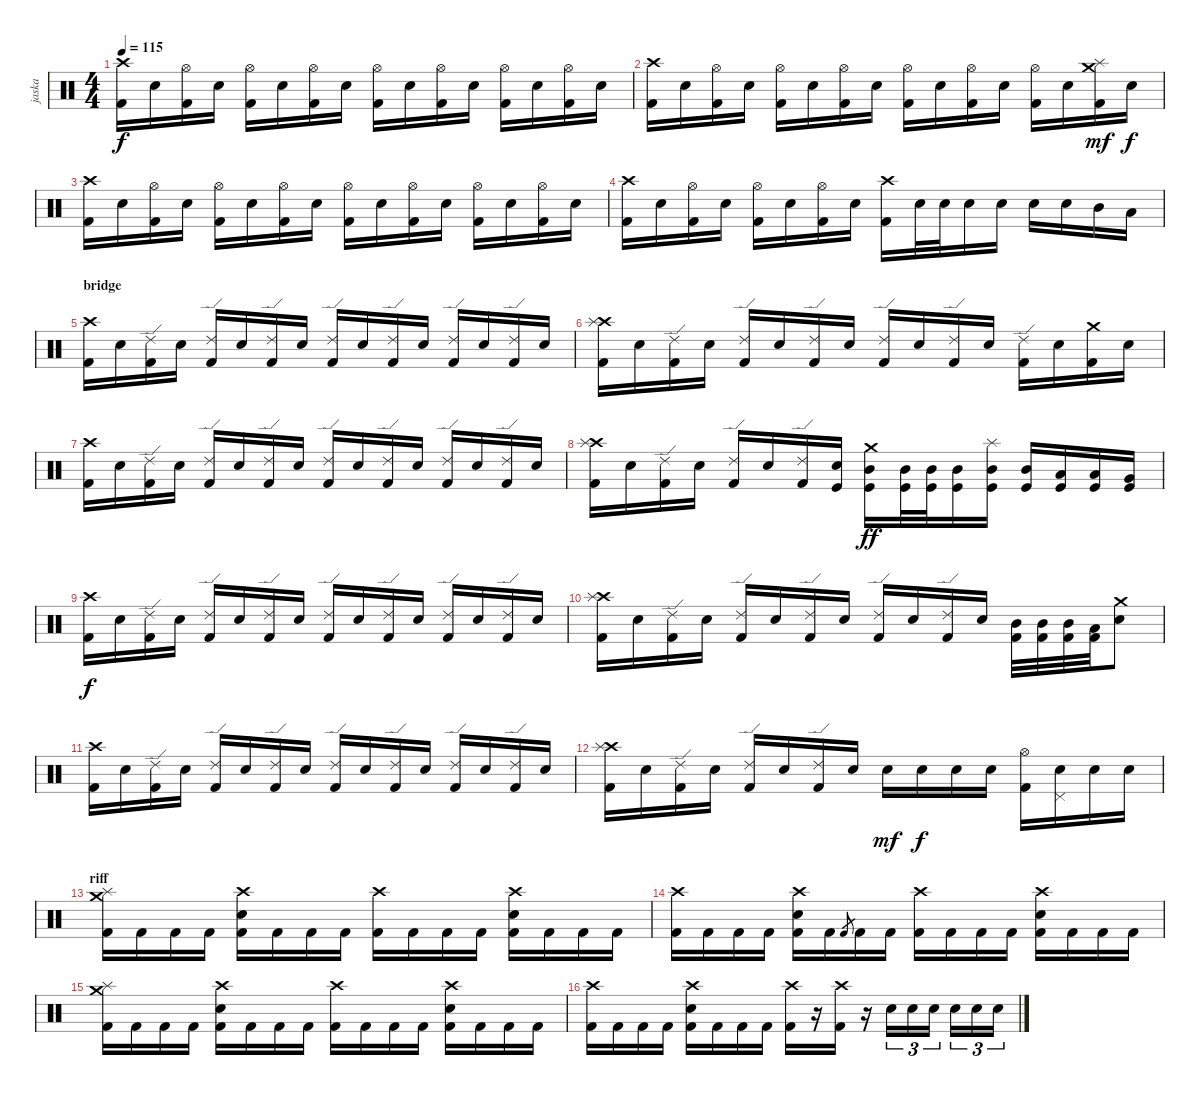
\track ("jaska" "jaska") {instrument percussion}
\staff {score}
\articulation defaults
\ts (4 4)
\tempo 115
\clef neutral
\ks c
("Crash high (hit)" "Kick (hit) 2").16{dy f} "Electric Snare (hit)".16 ("Hi-Hat (open)" "Kick (hit) 2").16 "Electric Snare (hit)".16 ("Hi-Hat (open)" "Kick (hit) 2").16 "Electric Snare (hit)".16 ("Hi-Hat (open)" "Kick (hit) 2").16 "Electric Snare (hit)".16 ("Hi-Hat (open)" "Kick (hit) 2").16 "Electric Snare (hit)".16 ("Hi-Hat (open)" "Kick (hit) 2").16 "Electric Snare (hit)".16 ("Hi-Hat (open)" "Kick (hit) 2").16 "Electric Snare (hit)".16 ("Hi-Hat (open)" "Kick (hit) 2").16 "Electric Snare (hit)".16 |
("Crash high (hit)" "Kick (hit) 2").16 "Electric Snare (hit)".16 ("Hi-Hat (open)" "Kick (hit) 2").16 "Electric Snare (hit)".16 ("Hi-Hat (open)" "Kick (hit) 2").16 "Electric Snare (hit)".16 ("Hi-Hat (open)" "Kick (hit) 2").16 "Electric Snare (hit)".16 ("Hi-Hat (open)" "Kick (hit) 2").16 "Electric Snare (hit)".16 ("Hi-Hat (open)" "Kick (hit) 2").16 "Electric Snare (hit)".16 ("Hi-Hat (open)" "Kick (hit) 2").16 "Electric Snare (hit)".16 ("Crash medium (hit)" "Splash (hit)" "Kick (hit) 2").16{dy mf} "Electric Snare (hit)".16{dy f} |
("Crash high (hit)" "Kick (hit) 2").16 "Electric Snare (hit)".16 ("Hi-Hat (open)" "Kick (hit) 2").16 "Electric Snare (hit)".16 ("Hi-Hat (open)" "Kick (hit) 2").16 "Electric Snare (hit)".16 ("Hi-Hat (open)" "Kick (hit) 2").16 "Electric Snare (hit)".16 ("Hi-Hat (open)" "Kick (hit) 2").16 "Electric Snare (hit)".16 ("Hi-Hat (open)" "Kick (hit) 2").16 "Electric Snare (hit)".16 ("Hi-Hat (open)" "Kick (hit) 2").16 "Electric Snare (hit)".16 ("Hi-Hat (open)" "Kick (hit) 2").16 "Electric Snare (hit)".16 |
("Crash high (hit)" "Kick (hit) 2").16 "Electric Snare (hit)".16 ("Hi-Hat (open)" "Kick (hit) 2").16 "Electric Snare (hit)".16 ("Hi-Hat (open)" "Kick (hit) 2").16 "Electric Snare (hit)".16 ("Hi-Hat (open)" "Kick (hit) 2").16 "Electric Snare (hit)".16 ("Crash high (hit)" "Kick (hit) 2").16 "Electric Snare (hit)".32 "Electric Snare (hit)".32 "Electric Snare (hit)".16 "Electric Snare (hit)".16 "Electric Snare (hit)".16 "Electric Snare (hit)".16 "Mid Tom (hit)".16 "Low Tom (hit)".16 |
\section ("" "bridge")
("Crash high (hit)" "Kick (hit) 2").16 "Electric Snare (hit)".16 ("Ride (edge) 2" "Kick (hit) 2").16 "Electric Snare (hit)".16 ("Ride (edge) 2" "Kick (hit) 2").16 "Electric Snare (hit)".16 ("Ride (edge) 2" "Kick (hit) 2").16 "Electric Snare (hit)".16 ("Ride (edge) 2" "Kick (hit) 2").16 "Electric Snare (hit)".16 ("Ride (edge) 2" "Kick (hit) 2").16 "Electric Snare (hit)".16 ("Ride (edge) 2" "Kick (hit) 2").16 "Electric Snare (hit)".16 ("Ride (edge) 2" "Kick (hit) 2").16 "Electric Snare (hit)".16 |
("Crash high (hit)" "Splash (hit)" "Kick (hit) 2").16 "Electric Snare (hit)".16 ("Ride (edge) 2" "Kick (hit) 2").16 "Electric Snare (hit)".16 ("Ride (edge) 2" "Kick (hit) 2").16 "Electric Snare (hit)".16 ("Ride (edge) 2" "Kick (hit) 2").16 "Electric Snare (hit)".16 ("Ride (edge) 2" "Kick (hit) 2").16 "Electric Snare (hit)".16 ("Ride (edge) 2" "Kick (hit) 2").16 "Electric Snare (hit)".16 ("Ride (edge) 2" "Kick (hit) 2").16 "Electric Snare (hit)".16 ("Crash medium (hit)" "Kick (hit) 2").16 "Electric Snare (hit)".16 |
("Crash high (hit)" "Kick (hit) 2").16 "Electric Snare (hit)".16 ("Ride (edge) 2" "Kick (hit) 2").16 "Electric Snare (hit)".16 ("Ride (edge) 2" "Kick (hit) 2").16 "Electric Snare (hit)".16 ("Ride (edge) 2" "Kick (hit) 2").16 "Electric Snare (hit)".16 ("Ride (edge) 2" "Kick (hit) 2").16 "Electric Snare (hit)".16 ("Ride (edge) 2" "Kick (hit) 2").16 "Electric Snare (hit)".16 ("Ride (edge) 2" "Kick (hit) 2").16 "Electric Snare (hit)".16 ("Ride (edge) 2" "Kick (hit) 2").16 "Electric Snare (hit)".16 |
("Crash high (hit)" "Splash (hit)" "Kick (hit) 2").16 "Electric Snare (hit)".16 ("Ride (edge) 2" "Kick (hit) 2").16 "Electric Snare (hit)".16 ("Ride (edge) 2" "Kick (hit) 2").16 "Electric Snare (hit)".16 ("Ride (edge) 2" "Kick (hit) 2").16 ("Electric Snare (hit)" "Kick (hit)").16 ("Crash medium (hit)" "Mid Tom (hit)" "Kick (hit)").16{dy ff} ("Mid Tom (hit)" "Kick (hit)").32 ("Mid Tom (hit)" "Kick (hit)").32 ("Mid Tom (hit)" "Kick (hit)").16 ("Splash (hit)" "Mid Tom (hit)" "Kick (hit)").16 ("Mid Tom (hit)" "Kick (hit)").16 ("Low Tom (hit)" "Kick (hit)").16 ("Low Tom (hit)" "Kick (hit)").16 ("Very Low Tom (hit)" "Kick (hit)").16 |
("Crash high (hit)" "Kick (hit) 2").16{dy f} "Electric Snare (hit)".16 ("Ride (edge) 2" "Kick (hit) 2").16 "Electric Snare (hit)".16 ("Ride (edge) 2" "Kick (hit) 2").16 "Electric Snare (hit)".16 ("Ride (edge) 2" "Kick (hit) 2").16 "Electric Snare (hit)".16 ("Ride (edge) 2" "Kick (hit) 2").16 "Electric Snare (hit)".16 ("Ride (edge) 2" "Kick (hit) 2").16 "Electric Snare (hit)".16 ("Ride (edge) 2" "Kick (hit) 2").16 "Electric Snare (hit)".16 ("Ride (edge) 2" "Kick (hit) 2").16 "Electric Snare (hit)".16 |
("Crash high (hit)" "Splash (hit)" "Kick (hit) 2").16 "Electric Snare (hit)".16 ("Ride (edge) 2" "Kick (hit) 2").16 "Electric Snare (hit)".16 ("Ride (edge) 2" "Kick (hit) 2").16 "Electric Snare (hit)".16 ("Ride (edge) 2" "Kick (hit) 2").16 "Electric Snare (hit)".16 ("Ride (edge) 2" "Kick (hit) 2").16 "Electric Snare (hit)".16 ("Ride (edge) 2" "Kick (hit) 2").16 "Electric Snare (hit)".16 ("Mid Tom (hit)" "Kick (hit) 2").32 ("Mid Tom (hit)" "Kick (hit) 2").32 ("Mid Tom (hit)" "Kick (hit) 2").32 ("Low Tom (hit)" "Kick (hit) 2").32 ("Crash medium (hit)" "Electric Snare (hit)").8 |
("Crash high (hit)" "Kick (hit) 2").16 "Electric Snare (hit)".16 ("Ride (edge) 2" "Kick (hit) 2").16 "Electric Snare (hit)".16 ("Ride (edge) 2" "Kick (hit) 2").16 "Electric Snare (hit)".16 ("Ride (edge) 2" "Kick (hit) 2").16 "Electric Snare (hit)".16 ("Ride (edge) 2" "Kick (hit) 2").16 "Electric Snare (hit)".16 ("Ride (edge) 2" "Kick (hit) 2").16 "Electric Snare (hit)".16 ("Ride (edge) 2" "Kick (hit) 2").16 "Electric Snare (hit)".16 ("Ride (edge) 2" "Kick (hit) 2").16 "Electric Snare (hit)".16 |
("Crash high (hit)" "Splash (hit)" "Kick (hit) 2").16 "Electric Snare (hit)".16 ("Ride (edge) 2" "Kick (hit) 2").16 "Electric Snare (hit)".16 ("Ride (edge) 2" "Kick (hit) 2").16 "Electric Snare (hit)".16 ("Ride (edge) 2" "Kick (hit) 2").16 "Electric Snare (hit)".16 "Electric Snare (hit)".16{dy mf} "Electric Snare (hit)".16{dy f} "Electric Snare (hit)".16 "Electric Snare (hit)".16 ("Hi-Hat (open)" "Kick (hit) 2").16 ("Pedal Hi-Hat (hit)" "Electric Snare (hit)").16 "Electric Snare (hit)".16 "Electric Snare (hit)".16 |
\section ("" "riff")
("Crash medium (hit)" "Splash (hit)" "Kick (hit) 2").16 "Kick (hit) 2".16 "Kick (hit) 2".16 "Kick (hit) 2".16 ("Crash high (hit)" "Electric Snare (hit)" "Kick (hit) 2").16 "Kick (hit) 2".16 "Kick (hit) 2".16 "Kick (hit) 2".16 ("Crash high (hit)" "Kick (hit) 2").16 "Kick (hit) 2".16 "Kick (hit) 2".16 "Kick (hit) 2".16 ("Crash high (hit)" "Electric Snare (hit)" "Kick (hit) 2").16 "Kick (hit) 2".16 "Kick (hit) 2".16 "Kick (hit) 2".16 |
("Crash high (hit)" "Kick (hit) 2").16 "Kick (hit) 2".16 "Kick (hit) 2".16 "Kick (hit) 2".16 ("Crash high (hit)" "Electric Snare (hit)" "Kick (hit) 2").16 "Kick (hit) 2".16 "Kick (hit) 2".8{gr} "Kick (hit) 2".16 "Kick (hit) 2".16 ("Crash high (hit)" "Kick (hit) 2").16 "Kick (hit) 2".16 "Kick (hit) 2".16 "Kick (hit) 2".16 ("Crash high (hit)" "Electric Snare (hit)" "Kick (hit) 2").16 "Kick (hit) 2".16 "Kick (hit) 2".16 "Kick (hit) 2".16 |
("Crash medium (hit)" "Splash (hit)" "Kick (hit) 2").16 "Kick (hit) 2".16 "Kick (hit) 2".16 "Kick (hit) 2".16 ("Crash high (hit)" "Electric Snare (hit)" "Kick (hit) 2").16 "Kick (hit) 2".16 "Kick (hit) 2".16 "Kick (hit) 2".16 ("Crash high (hit)" "Kick (hit) 2").16 "Kick (hit) 2".16 "Kick (hit) 2".16 "Kick (hit) 2".16 ("Crash high (hit)" "Electric Snare (hit)" "Kick (hit) 2").16 "Kick (hit) 2".16 "Kick (hit) 2".16 "Kick (hit) 2".16 |
("Crash high (hit)" "Kick (hit) 2").16 "Kick (hit) 2".16 "Kick (hit) 2".16 "Kick (hit) 2".16 ("Crash high (hit)" "Electric Snare (hit)" "Kick (hit) 2").16 "Kick (hit) 2".16 "Kick (hit) 2".16 "Kick (hit) 2".16 ("Crash high (hit)"{pm} "Kick (hit) 2").16 r.16 ("Crash high (hit)"{pm} "Kick (hit) 2").16 r.16 "Electric Snare (hit)".16{tu (3 2)} "Electric Snare (hit)".16{tu (3 2)} "Electric Snare (hit)".16{tu (3 2)} "Electric Snare (hit)".16{tu (3 2)} "Electric Snare (hit)".16{tu (3 2)} "Electric Snare (hit)".16{tu (3 2)}
